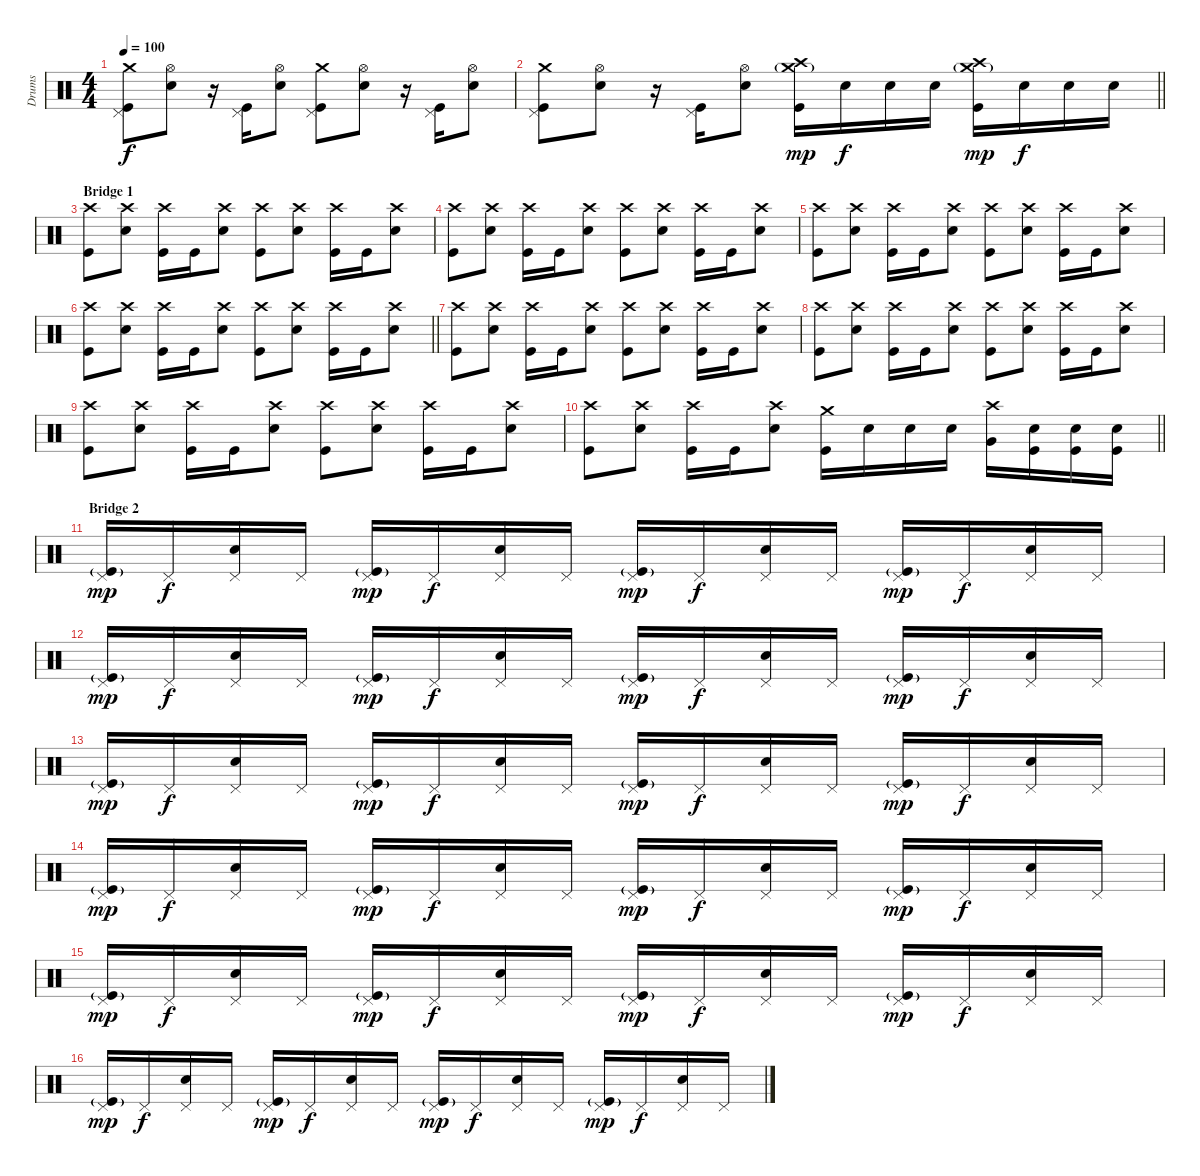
\track ("Drums" "Drums") {instrument percussion}
\staff {score}
\articulation defaults
\ts (4 4)
\tempo 100
\clef neutral
\ks c
("Crash medium (hit)" "Pedal Hi-Hat (hit)" "Kick (hit)").8{dy f} ("Hi-Hat (open)" "Electric Snare (hit)").8 r.16 ("Pedal Hi-Hat (hit)" "Kick (hit)").16 ("Hi-Hat (open)" "Electric Snare (hit)").8 ("Crash medium (hit)" "Pedal Hi-Hat (hit)" "Kick (hit)").8 ("Hi-Hat (open)" "Electric Snare (hit)").8 r.16 ("Pedal Hi-Hat (hit)" "Kick (hit)").16 ("Hi-Hat (open)" "Electric Snare (hit)").8 |
\barLineRight lightlight
("Crash medium (hit)" "Pedal Hi-Hat (hit)" "Kick (hit)").8 ("Hi-Hat (open)" "Electric Snare (hit)").8 r.16 ("Pedal Hi-Hat (hit)" "Kick (hit)").16 ("Hi-Hat (open)" "Electric Snare (hit)").8 ("Crash high (hit)" "Crash medium (hit)"{g} "Kick (hit)").16{dy mp} "Electric Snare (hit)".16{dy f} "Electric Snare (hit)".16 "Electric Snare (hit)".16 ("Crash high (hit)" "Crash medium (hit)"{g} "Kick (hit)").16{dy mp} "Electric Snare (hit)".16{dy f} "Electric Snare (hit)".16 "Electric Snare (hit)".16 |
\section ("" "Bridge 1")
("Crash high (hit)" "Kick (hit)").8 ("Crash high (hit)" "Electric Snare (hit)").8 ("Crash high (hit)" "Kick (hit)").16 "Kick (hit)".16 ("Crash high (hit)" "Electric Snare (hit)").8 ("Crash high (hit)" "Kick (hit)").8 ("Crash high (hit)" "Electric Snare (hit)").8 ("Crash high (hit)" "Kick (hit)").16 "Kick (hit)".16 ("Crash high (hit)" "Electric Snare (hit)").8 |
("Crash high (hit)" "Kick (hit)").8 ("Crash high (hit)" "Electric Snare (hit)").8 ("Crash high (hit)" "Kick (hit)").16 "Kick (hit)".16 ("Crash high (hit)" "Electric Snare (hit)").8 ("Crash high (hit)" "Kick (hit)").8 ("Crash high (hit)" "Electric Snare (hit)").8 ("Crash high (hit)" "Kick (hit)").16 "Kick (hit)".16 ("Crash high (hit)" "Electric Snare (hit)").8 |
("Crash high (hit)" "Kick (hit)").8 ("Crash high (hit)" "Electric Snare (hit)").8 ("Crash high (hit)" "Kick (hit)").16 "Kick (hit)".16 ("Crash high (hit)" "Electric Snare (hit)").8 ("Crash high (hit)" "Kick (hit)").8 ("Crash high (hit)" "Electric Snare (hit)").8 ("Crash high (hit)" "Kick (hit)").16 "Kick (hit)".16 ("Crash high (hit)" "Electric Snare (hit)").8 |
\barLineRight lightlight
("Crash high (hit)" "Kick (hit)").8 ("Crash high (hit)" "Electric Snare (hit)").8 ("Crash high (hit)" "Kick (hit)").16 "Kick (hit)".16 ("Crash high (hit)" "Electric Snare (hit)").8 ("Crash high (hit)" "Kick (hit)").8 ("Crash high (hit)" "Electric Snare (hit)").8 ("Crash high (hit)" "Kick (hit)").16 "Kick (hit)".16 ("Crash high (hit)" "Electric Snare (hit)").8 |
("Crash high (hit)" "Kick (hit)").8 ("Crash high (hit)" "Electric Snare (hit)").8 ("Crash high (hit)" "Kick (hit)").16 "Kick (hit)".16 ("Crash high (hit)" "Electric Snare (hit)").8 ("Crash high (hit)" "Kick (hit)").8 ("Crash high (hit)" "Electric Snare (hit)").8 ("Crash high (hit)" "Kick (hit)").16 "Kick (hit)".16 ("Crash high (hit)" "Electric Snare (hit)").8 |
("Crash high (hit)" "Kick (hit)").8 ("Crash high (hit)" "Electric Snare (hit)").8 ("Crash high (hit)" "Kick (hit)").16 "Kick (hit)".16 ("Crash high (hit)" "Electric Snare (hit)").8 ("Crash high (hit)" "Kick (hit)").8 ("Crash high (hit)" "Electric Snare (hit)").8 ("Crash high (hit)" "Kick (hit)").16 "Kick (hit)".16 ("Crash high (hit)" "Electric Snare (hit)").8 |
("Crash high (hit)" "Kick (hit)").8 ("Crash high (hit)" "Electric Snare (hit)").8 ("Crash high (hit)" "Kick (hit)").16 "Kick (hit)".16 ("Crash high (hit)" "Electric Snare (hit)").8 ("Crash high (hit)" "Kick (hit)").8 ("Crash high (hit)" "Electric Snare (hit)").8 ("Crash high (hit)" "Kick (hit)").16 "Kick (hit)".16 ("Crash high (hit)" "Electric Snare (hit)").8 |
\barLineRight lightlight
("Crash high (hit)" "Kick (hit)").8 ("Crash high (hit)" "Electric Snare (hit)").8 ("Crash high (hit)" "Kick (hit)").16 "Kick (hit)".16 ("Crash high (hit)" "Electric Snare (hit)").8 ("Crash medium (hit)" "Kick (hit)").16 "Electric Snare (hit)".16 "Electric Snare (hit)".16 "Electric Snare (hit)".16 ("Crash high (hit)" "Very Low Tom (hit)").16 ("Electric Snare (hit)" "Kick (hit)").16 ("Electric Snare (hit)" "Kick (hit)").16 ("Electric Snare (hit)" "Kick (hit)").16 |
\section ("" "Bridge 2")
("Pedal Hi-Hat (hit)" "Kick (hit)"{g}).16{dy mp} "Pedal Hi-Hat (hit)".16{dy f} ("Pedal Hi-Hat (hit)" "Electric Snare (hit)").16 "Pedal Hi-Hat (hit)".16 ("Pedal Hi-Hat (hit)" "Kick (hit)"{g}).16{dy mp} "Pedal Hi-Hat (hit)".16{dy f} ("Pedal Hi-Hat (hit)" "Electric Snare (hit)").16 "Pedal Hi-Hat (hit)".16 ("Pedal Hi-Hat (hit)" "Kick (hit)"{g}).16{dy mp} "Pedal Hi-Hat (hit)".16{dy f} ("Pedal Hi-Hat (hit)" "Electric Snare (hit)").16 "Pedal Hi-Hat (hit)".16 ("Pedal Hi-Hat (hit)" "Kick (hit)"{g}).16{dy mp} "Pedal Hi-Hat (hit)".16{dy f} ("Pedal Hi-Hat (hit)" "Electric Snare (hit)").16 "Pedal Hi-Hat (hit)".16 |
("Pedal Hi-Hat (hit)" "Kick (hit)"{g}).16{dy mp} "Pedal Hi-Hat (hit)".16{dy f} ("Pedal Hi-Hat (hit)" "Electric Snare (hit)").16 "Pedal Hi-Hat (hit)".16 ("Pedal Hi-Hat (hit)" "Kick (hit)"{g}).16{dy mp} "Pedal Hi-Hat (hit)".16{dy f} ("Pedal Hi-Hat (hit)" "Electric Snare (hit)").16 "Pedal Hi-Hat (hit)".16 ("Pedal Hi-Hat (hit)" "Kick (hit)"{g}).16{dy mp} "Pedal Hi-Hat (hit)".16{dy f} ("Pedal Hi-Hat (hit)" "Electric Snare (hit)").16 "Pedal Hi-Hat (hit)".16 ("Pedal Hi-Hat (hit)" "Kick (hit)"{g}).16{dy mp} "Pedal Hi-Hat (hit)".16{dy f} ("Pedal Hi-Hat (hit)" "Electric Snare (hit)").16 "Pedal Hi-Hat (hit)".16 |
("Pedal Hi-Hat (hit)" "Kick (hit)"{g}).16{dy mp} "Pedal Hi-Hat (hit)".16{dy f} ("Pedal Hi-Hat (hit)" "Electric Snare (hit)").16 "Pedal Hi-Hat (hit)".16 ("Pedal Hi-Hat (hit)" "Kick (hit)"{g}).16{dy mp} "Pedal Hi-Hat (hit)".16{dy f} ("Pedal Hi-Hat (hit)" "Electric Snare (hit)").16 "Pedal Hi-Hat (hit)".16 ("Pedal Hi-Hat (hit)" "Kick (hit)"{g}).16{dy mp} "Pedal Hi-Hat (hit)".16{dy f} ("Pedal Hi-Hat (hit)" "Electric Snare (hit)").16 "Pedal Hi-Hat (hit)".16 ("Pedal Hi-Hat (hit)" "Kick (hit)"{g}).16{dy mp} "Pedal Hi-Hat (hit)".16{dy f} ("Pedal Hi-Hat (hit)" "Electric Snare (hit)").16 "Pedal Hi-Hat (hit)".16 |
("Pedal Hi-Hat (hit)" "Kick (hit)"{g}).16{dy mp} "Pedal Hi-Hat (hit)".16{dy f} ("Pedal Hi-Hat (hit)" "Electric Snare (hit)").16 "Pedal Hi-Hat (hit)".16 ("Pedal Hi-Hat (hit)" "Kick (hit)"{g}).16{dy mp} "Pedal Hi-Hat (hit)".16{dy f} ("Pedal Hi-Hat (hit)" "Electric Snare (hit)").16 "Pedal Hi-Hat (hit)".16 ("Pedal Hi-Hat (hit)" "Kick (hit)"{g}).16{dy mp} "Pedal Hi-Hat (hit)".16{dy f} ("Pedal Hi-Hat (hit)" "Electric Snare (hit)").16 "Pedal Hi-Hat (hit)".16 ("Pedal Hi-Hat (hit)" "Kick (hit)"{g}).16{dy mp} "Pedal Hi-Hat (hit)".16{dy f} ("Pedal Hi-Hat (hit)" "Electric Snare (hit)").16 "Pedal Hi-Hat (hit)".16 |
("Pedal Hi-Hat (hit)" "Kick (hit)"{g}).16{dy mp} "Pedal Hi-Hat (hit)".16{dy f} ("Pedal Hi-Hat (hit)" "Electric Snare (hit)").16 "Pedal Hi-Hat (hit)".16 ("Pedal Hi-Hat (hit)" "Kick (hit)"{g}).16{dy mp} "Pedal Hi-Hat (hit)".16{dy f} ("Pedal Hi-Hat (hit)" "Electric Snare (hit)").16 "Pedal Hi-Hat (hit)".16 ("Pedal Hi-Hat (hit)" "Kick (hit)"{g}).16{dy mp} "Pedal Hi-Hat (hit)".16{dy f} ("Pedal Hi-Hat (hit)" "Electric Snare (hit)").16 "Pedal Hi-Hat (hit)".16 ("Pedal Hi-Hat (hit)" "Kick (hit)"{g}).16{dy mp} "Pedal Hi-Hat (hit)".16{dy f} ("Pedal Hi-Hat (hit)" "Electric Snare (hit)").16 "Pedal Hi-Hat (hit)".16 |
("Pedal Hi-Hat (hit)" "Kick (hit)"{g}).16{dy mp} "Pedal Hi-Hat (hit)".16{dy f} ("Pedal Hi-Hat (hit)" "Electric Snare (hit)").16 "Pedal Hi-Hat (hit)".16 ("Pedal Hi-Hat (hit)" "Kick (hit)"{g}).16{dy mp} "Pedal Hi-Hat (hit)".16{dy f} ("Pedal Hi-Hat (hit)" "Electric Snare (hit)").16 "Pedal Hi-Hat (hit)".16 ("Pedal Hi-Hat (hit)" "Kick (hit)"{g}).16{dy mp} "Pedal Hi-Hat (hit)".16{dy f} ("Pedal Hi-Hat (hit)" "Electric Snare (hit)").16 "Pedal Hi-Hat (hit)".16 ("Pedal Hi-Hat (hit)" "Kick (hit)"{g}).16{dy mp} "Pedal Hi-Hat (hit)".16{dy f} ("Pedal Hi-Hat (hit)" "Electric Snare (hit)").16 "Pedal Hi-Hat (hit)".16
